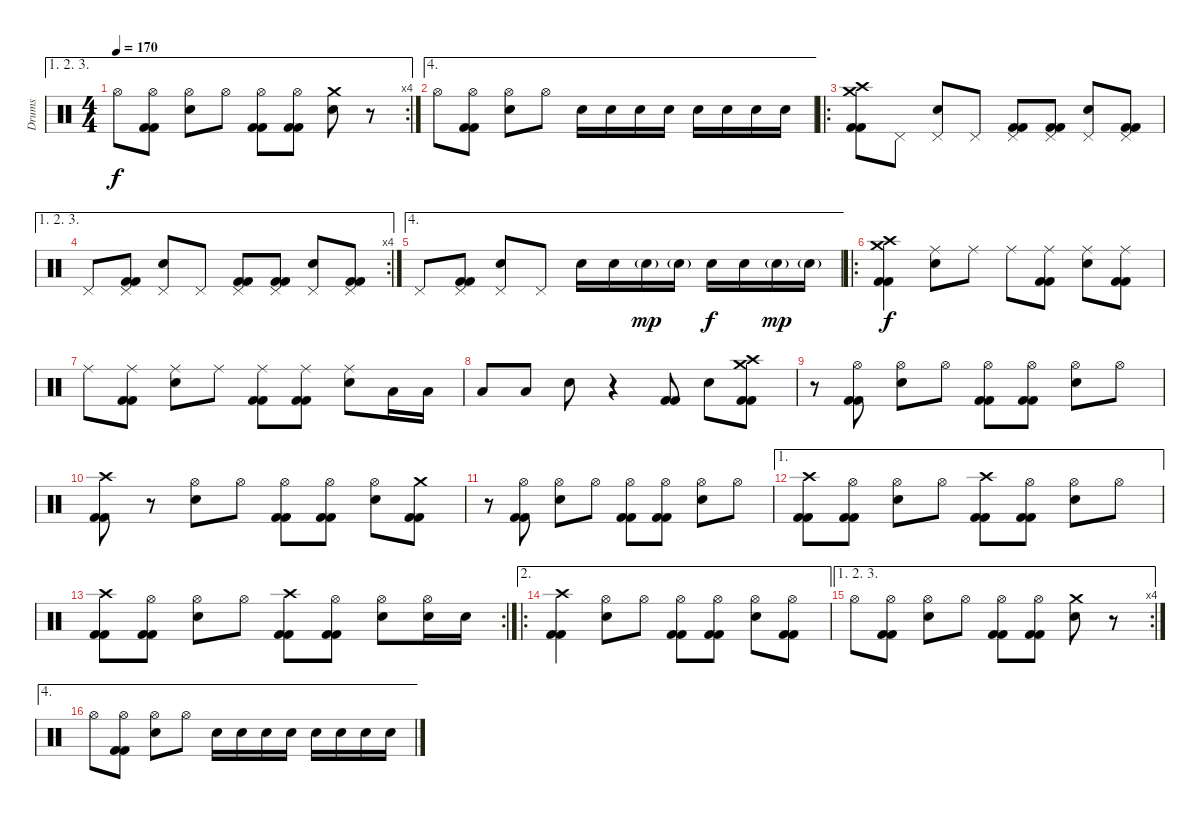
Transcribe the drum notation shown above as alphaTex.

\track ("Drums" "Drums") {instrument percussion}
\staff {score}
\articulation defaults
\ae (1 2 3)
\rc 4
\ts (4 4)
\tempo 170
\clef neutral
\ks c "Hi-Hat (open)".8{dy f}
("Hi-Hat (open)" "Kick (hit) 2" "Kick (hit) 2").8 ("Hi-Hat (open)" "Snare (hit) 2").8 "Hi-Hat (open)".8 ("Hi-Hat (open)" "Kick (hit) 2" "Kick (hit) 2").8 ("Hi-Hat (open)" "Kick (hit) 2" "Kick (hit) 2").8 ("Crash medium (hit)" "Snare (hit) 2").8 r.8 |
\ae 4 "Hi-Hat (open)".8
("Hi-Hat (open)" "Kick (hit) 2" "Kick (hit) 2").8 ("Hi-Hat (open)" "Snare (hit) 2").8 "Hi-Hat (open)".8 "Snare (hit) 2".16 "Snare (hit) 2".16 "Snare (hit) 2".16 "Snare (hit) 2".16 "Snare (hit) 2".16 "Snare (hit) 2".16 "Snare (hit) 2".16 "Snare (hit) 2".16 |
\ro
("Crash high (hit)" "Crash medium (hit)" "Kick (hit) 2" "Kick (hit) 2").8 "Pedal Hi-Hat (hit)".8 ("Pedal Hi-Hat (hit)" "Snare (hit) 2").8 "Pedal Hi-Hat (hit)".8 ("Pedal Hi-Hat (hit)" "Kick (hit) 2" "Kick (hit) 2").8 ("Pedal Hi-Hat (hit)" "Kick (hit) 2" "Kick (hit) 2").8 ("Pedal Hi-Hat (hit)" "Snare (hit) 2").8 ("Pedal Hi-Hat (hit)" "Kick (hit) 2" "Kick (hit) 2").8 |
\ae (1 2 3)
\rc 4 "Pedal Hi-Hat (hit)".8
("Pedal Hi-Hat (hit)" "Kick (hit) 2" "Kick (hit) 2").8 ("Pedal Hi-Hat (hit)" "Snare (hit) 2").8 "Pedal Hi-Hat (hit)".8 ("Pedal Hi-Hat (hit)" "Kick (hit) 2" "Kick (hit) 2").8 ("Pedal Hi-Hat (hit)" "Kick (hit) 2" "Kick (hit) 2").8 ("Pedal Hi-Hat (hit)" "Snare (hit) 2").8 ("Pedal Hi-Hat (hit)" "Kick (hit) 2" "Kick (hit) 2").8 |
\ae 4 "Pedal Hi-Hat (hit)".8
("Pedal Hi-Hat (hit)" "Kick (hit) 2" "Kick (hit) 2").8 ("Pedal Hi-Hat (hit)" "Snare (hit) 2").8 "Pedal Hi-Hat (hit)".8 "Snare (hit) 2".16 "Snare (hit) 2".16 "Snare (hit) 2"{g}.16{dy mp} "Snare (hit) 2"{g}.16 "Snare (hit) 2".16{dy f} "Snare (hit) 2".16 "Snare (hit) 2"{g}.16{dy mp} "Snare (hit) 2"{g}.16 |
\ro
("Crash high (hit)" "Crash medium (hit)" "Kick (hit) 2" "Kick (hit) 2").4{dy f} ("Ride (middle)" "Snare (hit) 2").8 "Ride (middle)".8 "Ride (middle)".8 ("Ride (middle)" "Kick (hit) 2" "Kick (hit) 2").8 ("Ride (middle)" "Snare (hit) 2").8 ("Ride (middle)" "Kick (hit) 2" "Kick (hit) 2").8 |
"Ride (middle)".8 ("Ride (middle)" "Kick (hit) 2" "Kick (hit) 2").8 ("Ride (middle)" "Snare (hit) 2").8 "Ride (middle)".8 ("Ride (middle)" "Kick (hit) 2" "Kick (hit) 2").8 ("Ride (middle)" "Kick (hit) 2" "Kick (hit) 2").8 ("Ride (middle)" "Snare (hit) 2").8 "Low Tom (hit)".16 "Low Tom (hit)".16 |
"Low Tom (hit)".8 "Low Tom (hit)".8 "Snare (hit) 2".8 r.4 ("Kick (hit) 2" "Kick (hit) 2").8 "Snare (hit) 2".8 ("Crash high (hit)" "Crash medium (hit)" "Kick (hit) 2" "Kick (hit) 2").8 |
r.8 ("Hi-Hat (open)" "Kick (hit) 2" "Kick (hit) 2").8 ("Hi-Hat (open)" "Snare (hit) 2").8 "Hi-Hat (open)".8 ("Hi-Hat (open)" "Kick (hit) 2" "Kick (hit) 2").8 ("Hi-Hat (open)" "Kick (hit) 2" "Kick (hit) 2").8 ("Hi-Hat (open)" "Snare (hit) 2").8 "Hi-Hat (open)".8 |
("Crash high (hit)" "Kick (hit) 2" "Kick (hit) 2").8 r.8 ("Hi-Hat (open)" "Snare (hit) 2").8 "Hi-Hat (open)".8 ("Hi-Hat (open)" "Kick (hit) 2" "Kick (hit) 2").8 ("Hi-Hat (open)" "Kick (hit) 2" "Kick (hit) 2").8 ("Hi-Hat (open)" "Snare (hit) 2").8 ("Crash medium (hit)" "Kick (hit) 2" "Kick (hit) 2").8 |
r.8 ("Hi-Hat (open)" "Kick (hit) 2" "Kick (hit) 2").8 ("Hi-Hat (open)" "Snare (hit) 2").8 "Hi-Hat (open)".8 ("Hi-Hat (open)" "Kick (hit) 2" "Kick (hit) 2").8 ("Hi-Hat (open)" "Kick (hit) 2" "Kick (hit) 2").8 ("Hi-Hat (open)" "Snare (hit) 2").8 "Hi-Hat (open)".8 |
\ae 1
("Crash high (hit)" "Kick (hit) 2" "Kick (hit) 2").8 ("Hi-Hat (open)" "Kick (hit) 2" "Kick (hit) 2").8 ("Hi-Hat (open)" "Snare (hit) 2").8 "Hi-Hat (open)".8 ("Crash high (hit)" "Kick (hit) 2" "Kick (hit) 2").8 ("Hi-Hat (open)" "Kick (hit) 2" "Kick (hit) 2").8 ("Hi-Hat (open)" "Snare (hit) 2").8 "Hi-Hat (open)".8 |
\rc 2
("Crash high (hit)" "Kick (hit) 2" "Kick (hit) 2").8 ("Hi-Hat (open)" "Kick (hit) 2" "Kick (hit) 2").8 ("Hi-Hat (open)" "Snare (hit) 2").8 "Hi-Hat (open)".8 ("Crash high (hit)" "Kick (hit) 2" "Kick (hit) 2").8 ("Hi-Hat (open)" "Kick (hit) 2" "Kick (hit) 2").8 ("Hi-Hat (open)" "Snare (hit) 2").8 ("Hi-Hat (open)" "Snare (hit) 2").16 "Snare (hit) 2".16 |
\ae 2
\ro
("Crash high (hit)" "Kick (hit) 2" "Kick (hit) 2").4 ("Hi-Hat (open)" "Snare (hit) 2").8 "Hi-Hat (open)".8 ("Hi-Hat (open)" "Kick (hit) 2" "Kick (hit) 2").8 ("Hi-Hat (open)" "Kick (hit) 2" "Kick (hit) 2").8 ("Hi-Hat (open)" "Snare (hit) 2").8 ("Hi-Hat (open)" "Kick (hit) 2" "Kick (hit) 2").8 |
\ae (1 2 3)
\rc 4 "Hi-Hat (open)".8
("Hi-Hat (open)" "Kick (hit) 2" "Kick (hit) 2").8 ("Hi-Hat (open)" "Snare (hit) 2").8 "Hi-Hat (open)".8 ("Hi-Hat (open)" "Kick (hit) 2" "Kick (hit) 2").8 ("Hi-Hat (open)" "Kick (hit) 2" "Kick (hit) 2").8 ("Crash medium (hit)" "Snare (hit) 2").8 r.8 |
\ae 4 "Hi-Hat (open)".8
("Hi-Hat (open)" "Kick (hit) 2" "Kick (hit) 2").8 ("Hi-Hat (open)" "Snare (hit) 2").8 "Hi-Hat (open)".8 "Snare (hit) 2".16 "Snare (hit) 2".16 "Snare (hit) 2".16 "Snare (hit) 2".16 "Snare (hit) 2".16 "Snare (hit) 2".16 "Snare (hit) 2".16 "Snare (hit) 2".16
